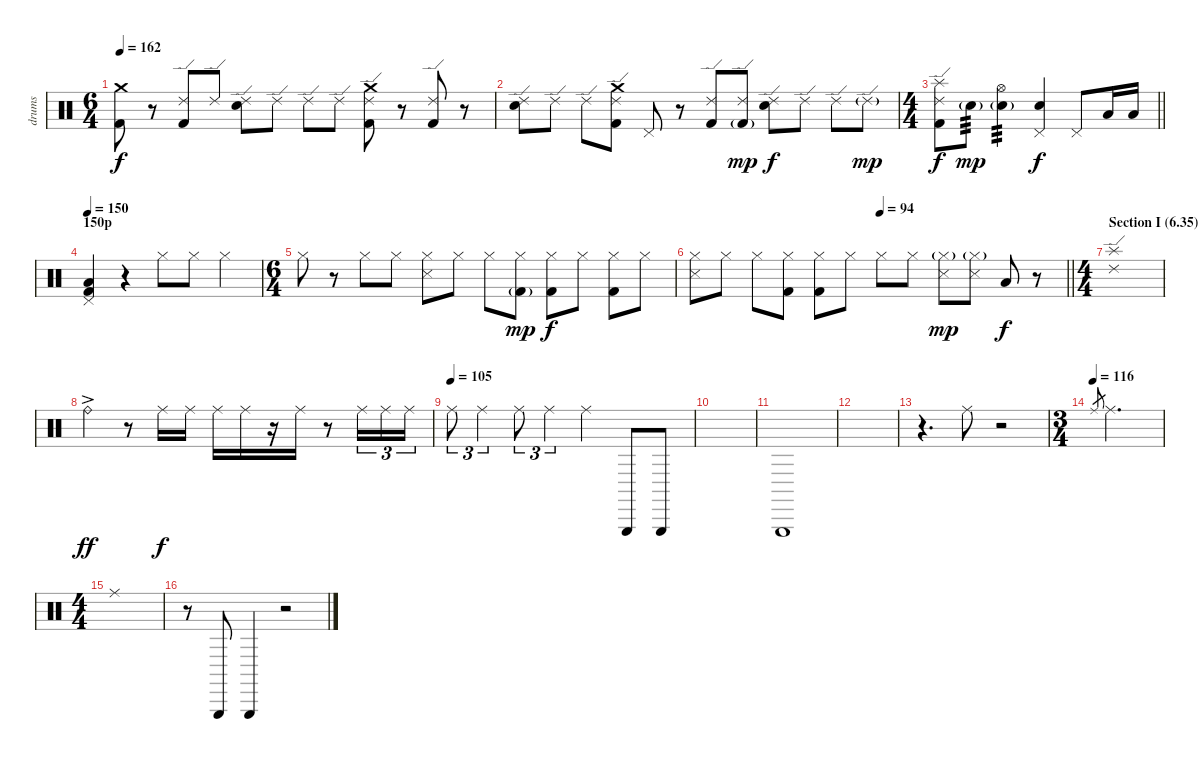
\track ("drums" "drums") {instrument percussion}
\staff {score}
\articulation defaults
\ts (6 4)
\tempo 162
\clef neutral
\ks c
("Crash medium (hit)" "Kick (hit) 2").8{dy f} r.8 ("Ride (edge) 2" "Kick (hit) 2").8 "Ride (edge) 2".8 ("Ride (edge) 2" "Electric Snare (hit)").8 "Ride (edge) 2".8 "Ride (edge) 2".8 "Ride (edge) 2".8 ("Ride (edge) 2" "Crash medium (hit)" "Kick (hit) 2").8 r.8 ("Ride (edge) 2" "Kick (hit) 2").8 r.8 |
("Ride (edge) 2" "Electric Snare (hit)").8 "Ride (edge) 2".8 "Ride (edge) 2".8 ("Ride (edge) 2" "Crash medium (hit)" "Kick (hit) 2").8 "Pedal Hi-Hat (hit)".8 r.8 ("Ride (edge) 2" "Kick (hit) 2").8 ("Ride (edge) 2" "Kick (hit) 2"{g}).8{dy mp} ("Ride (edge) 2" "Electric Snare (hit)").8{dy f} "Ride (edge) 2".8 "Ride (edge) 2".8 "Ride (edge) 2"{g}.8{dy mp} |
\ts (4 4)
\barLineRight lightlight
("Ride (edge) 2" "Splash (hit)" "Kick (hit) 2").8{dy f} "Electric Snare (hit)"{g}.8{tp 3 dy mp} ("Hi-Hat (open)" "Electric Snare (hit)"{g}).4{tp 3} ("Pedal Hi-Hat (hit)" "Electric Snare (hit)").4{dy f} "Pedal Hi-Hat (hit)".8 "Low Tom (hit)".16 "Low Tom (hit)".16 |
\section ("" "150p")
\tempo 150
("Pedal Hi-Hat (hit)" "Low Tom (hit)" "Kick (hit) 2").4 r.4 "Hi-Hat (closed)".8 "Hi-Hat (closed)".8 "Hi-Hat (closed)".4 |
\ts (6 4)
"Hi-Hat (closed)".8 r.8 "Hi-Hat (closed)".8 "Hi-Hat (closed)".8 ("Hi-Hat (closed)" "Snare (side stick) 3").8 "Hi-Hat (closed)".8 "Hi-Hat (closed)".8 ("Hi-Hat (closed)" "Kick (hit) 2"{g}).8{dy mp} ("Hi-Hat (closed)" "Kick (hit) 2").8{dy f} "Hi-Hat (closed)".8 ("Hi-Hat (closed)" "Kick (hit) 2").8 "Hi-Hat (closed)".8 |
\tempo (94 0.5)
\barLineRight lightlight
("Hi-Hat (closed)" "Snare (side stick) 3").8 "Hi-Hat (closed)".8 "Hi-Hat (closed)".8 ("Hi-Hat (closed)" "Kick (hit) 2").8 ("Hi-Hat (closed)" "Kick (hit) 2").8 "Hi-Hat (closed)".8 "Hi-Hat (closed)".8 "Hi-Hat (closed)".8 ("Hi-Hat (closed)"{g} "Snare (side stick) 3").8{dy mp} ("Hi-Hat (closed)"{g} "Snare (side stick) 3").8 "Low Tom (hit)".8{dy f} r.8 |
\ts (4 4)
\section ("" "Section I (6.35) +-p")
("Ride (edge) 2" "Splash (hit)").1 |
"Ride (bell)"{ac}.4{dy ff} r.8 "Ride (middle)".16{dy f} "Ride (middle)".16 "Ride (middle)".16 "Ride (middle)".16 r.16 "Ride (middle)".16 r.8 "Ride (middle)".16{tu (3 2)} "Ride (middle)".16{tu (3 2)} "Ride (middle)".16{tu (3 2)} |
\tempo (105)
"Ride (middle)".8{tu (3 2)} "Ride (middle)".4{tu (3 2)} "Ride (middle)".8{tu (3 2)} "Ride (middle)".4{tu (3 2)} "Ride (middle)".4 "Triangle (hit)".8 "Triangle (hit)".8 |
|
"Triangle (hit)".1 |
|
r.4{d} "Ride (middle)".8 r.2 |
\ts (3 4)
\tempo (116)
"Ride (middle)".8{gr} "Ride (middle)".2{d} |
\ts (4 4)
"Ride (middle)".1 |
r.8 "Triangle (hit)".8 "Triangle (hit)".4 r.2
